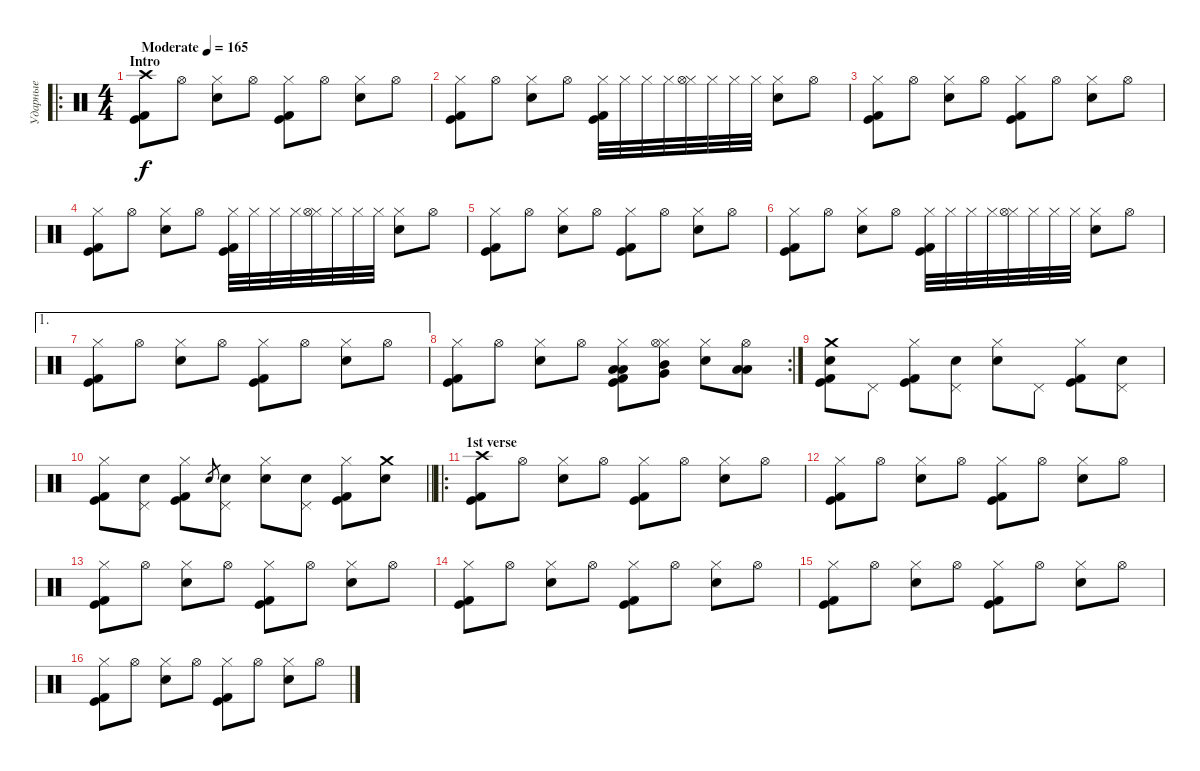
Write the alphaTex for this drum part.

\track ("Ударные" "Ударные") {instrument percussion}
\staff {score}
\articulation defaults
\ro
\ts (4 4)
\section ("" "Intro")
\tempo (165 "Moderate")
\clef neutral
\ks c
("Crash high (hit)" "Kick (hit)" "Kick (hit) 2").8{dy f} "Hi-Hat (open)".8 ("Hi-Hat (closed)" "Electric Snare (hit)").8 "Hi-Hat (open)".8 ("Hi-Hat (closed)" "Kick (hit)" "Kick (hit) 2").8 "Hi-Hat (open)".8 ("Hi-Hat (closed)" "Electric Snare (hit)").8 "Hi-Hat (open)".8 |
("Hi-Hat (closed)" "Kick (hit)" "Kick (hit) 2").8 "Hi-Hat (open)".8 ("Hi-Hat (closed)" "Electric Snare (hit)").8 "Hi-Hat (open)".8 ("Hi-Hat (closed)" "Kick (hit)" "Kick (hit) 2").32 "Hi-Hat (closed)".32 "Hi-Hat (closed)".32 "Hi-Hat (closed)".32 ("Hi-Hat (closed)" "Hi-Hat (open)").32 "Hi-Hat (closed)".32 "Hi-Hat (closed)".32 "Hi-Hat (closed)".32 ("Hi-Hat (closed)" "Electric Snare (hit)").8 "Hi-Hat (open)".8 |
("Hi-Hat (closed)" "Kick (hit)" "Kick (hit) 2").8 "Hi-Hat (open)".8 ("Hi-Hat (closed)" "Electric Snare (hit)").8 "Hi-Hat (open)".8 ("Hi-Hat (closed)" "Kick (hit)" "Kick (hit) 2").8 "Hi-Hat (open)".8 ("Hi-Hat (closed)" "Electric Snare (hit)").8 "Hi-Hat (open)".8 |
("Hi-Hat (closed)" "Kick (hit)" "Kick (hit) 2").8 "Hi-Hat (open)".8 ("Hi-Hat (closed)" "Electric Snare (hit)").8 "Hi-Hat (open)".8 ("Hi-Hat (closed)" "Kick (hit)" "Kick (hit) 2").32 "Hi-Hat (closed)".32 "Hi-Hat (closed)".32 "Hi-Hat (closed)".32 ("Hi-Hat (closed)" "Hi-Hat (open)").32 "Hi-Hat (closed)".32 "Hi-Hat (closed)".32 "Hi-Hat (closed)".32 ("Hi-Hat (closed)" "Electric Snare (hit)").8 "Hi-Hat (open)".8 |
("Hi-Hat (closed)" "Kick (hit)" "Kick (hit) 2").8 "Hi-Hat (open)".8 ("Hi-Hat (closed)" "Electric Snare (hit)").8 "Hi-Hat (open)".8 ("Hi-Hat (closed)" "Kick (hit)" "Kick (hit) 2").8 "Hi-Hat (open)".8 ("Hi-Hat (closed)" "Electric Snare (hit)").8 "Hi-Hat (open)".8 |
("Hi-Hat (closed)" "Kick (hit)" "Kick (hit) 2").8 "Hi-Hat (open)".8 ("Hi-Hat (closed)" "Electric Snare (hit)").8 "Hi-Hat (open)".8 ("Hi-Hat (closed)" "Kick (hit)" "Kick (hit) 2").32 "Hi-Hat (closed)".32 "Hi-Hat (closed)".32 "Hi-Hat (closed)".32 ("Hi-Hat (closed)" "Hi-Hat (open)").32 "Hi-Hat (closed)".32 "Hi-Hat (closed)".32 "Hi-Hat (closed)".32 ("Hi-Hat (closed)" "Electric Snare (hit)").8 "Hi-Hat (open)".8 |
\ae 1
("Hi-Hat (closed)" "Kick (hit)" "Kick (hit) 2").8 "Hi-Hat (open)".8 ("Hi-Hat (closed)" "Electric Snare (hit)").8 "Hi-Hat (open)".8 ("Hi-Hat (closed)" "Kick (hit)" "Kick (hit) 2").8 "Hi-Hat (open)".8 ("Hi-Hat (closed)" "Electric Snare (hit)").8 "Hi-Hat (open)".8 |
\rc 2
("Hi-Hat (closed)" "Kick (hit)" "Kick (hit) 2").8 "Hi-Hat (open)".8 ("Hi-Hat (closed)" "Electric Snare (hit)").8 "Hi-Hat (open)".8 ("Low Tom (hit)" "Hi-Hat (closed)" "Low Floor Tom (hit)" "Kick (hit)" "Kick (hit) 2").8 ("Very Low Tom (hit)" "Hi-Hat (closed)" "Hi-Hat (open)" "Mid Tom (hit)").8 ("Hi-Hat (closed)" "Electric Snare (hit)").8 ("Low Tom (hit)" "Hi-Hat (open)" "Low Floor Tom (hit)").8 |
("Crash medium (hit)" "Electric Snare (hit)" "Kick (hit)" "Kick (hit) 2").8 "Pedal Hi-Hat (hit)".8 ("Hi-Hat (closed)" "Kick (hit)" "Kick (hit) 2").8 ("Pedal Hi-Hat (hit)" "Electric Snare (hit)").8 ("Hi-Hat (closed)" "Electric Snare (hit)").8 "Pedal Hi-Hat (hit)".8 ("Hi-Hat (closed)" "Kick (hit)" "Kick (hit) 2").8 ("Pedal Hi-Hat (hit)" "Electric Snare (hit)").8 |
\barLineRight lightlight
("Hi-Hat (closed)" "Kick (hit)" "Kick (hit) 2").8 ("Pedal Hi-Hat (hit)" "Electric Snare (hit)").8 ("Hi-Hat (closed)" "Kick (hit)" "Kick (hit) 2").8 "Electric Snare (hit)".8{gr} ("Pedal Hi-Hat (hit)" "Electric Snare (hit)").8 ("Hi-Hat (closed)" "Electric Snare (hit)").8 ("Pedal Hi-Hat (hit)" "Electric Snare (hit)").8 ("Hi-Hat (closed)" "Kick (hit)" "Kick (hit) 2").8 ("Crash medium (hit)" "Electric Snare (hit)").8 |
\ro
\section ("" "1st verse")
("Crash high (hit)" "Kick (hit)" "Kick (hit) 2").8 "Hi-Hat (open)".8 ("Hi-Hat (closed)" "Electric Snare (hit)").8 "Hi-Hat (open)".8 ("Hi-Hat (closed)" "Kick (hit)" "Kick (hit) 2").8 "Hi-Hat (open)".8 ("Hi-Hat (closed)" "Electric Snare (hit)").8 "Hi-Hat (open)".8 |
("Hi-Hat (closed)" "Kick (hit)" "Kick (hit) 2").8 "Hi-Hat (open)".8 ("Hi-Hat (closed)" "Electric Snare (hit)").8 "Hi-Hat (open)".8 ("Hi-Hat (closed)" "Kick (hit)" "Kick (hit) 2").8 "Hi-Hat (open)".8 ("Hi-Hat (closed)" "Electric Snare (hit)").8 "Hi-Hat (open)".8 |
("Hi-Hat (closed)" "Kick (hit)" "Kick (hit) 2").8 "Hi-Hat (open)".8 ("Hi-Hat (closed)" "Electric Snare (hit)").8 "Hi-Hat (open)".8 ("Hi-Hat (closed)" "Kick (hit)" "Kick (hit) 2").8 "Hi-Hat (open)".8 ("Hi-Hat (closed)" "Electric Snare (hit)").8 "Hi-Hat (open)".8 |
("Hi-Hat (closed)" "Kick (hit)" "Kick (hit) 2").8 "Hi-Hat (open)".8 ("Hi-Hat (closed)" "Electric Snare (hit)").8 "Hi-Hat (open)".8 ("Hi-Hat (closed)" "Kick (hit)" "Kick (hit) 2").8 "Hi-Hat (open)".8 ("Hi-Hat (closed)" "Electric Snare (hit)").8 "Hi-Hat (open)".8 |
("Hi-Hat (closed)" "Kick (hit)" "Kick (hit) 2").8 "Hi-Hat (open)".8 ("Hi-Hat (closed)" "Electric Snare (hit)").8 "Hi-Hat (open)".8 ("Hi-Hat (closed)" "Kick (hit)" "Kick (hit) 2").8 "Hi-Hat (open)".8 ("Hi-Hat (closed)" "Electric Snare (hit)").8 "Hi-Hat (open)".8 |
("Hi-Hat (closed)" "Kick (hit)" "Kick (hit) 2").8 "Hi-Hat (open)".8 ("Hi-Hat (closed)" "Electric Snare (hit)").8 "Hi-Hat (open)".8 ("Hi-Hat (closed)" "Kick (hit)" "Kick (hit) 2").8 "Hi-Hat (open)".8 ("Hi-Hat (closed)" "Electric Snare (hit)").8 "Hi-Hat (open)".8
